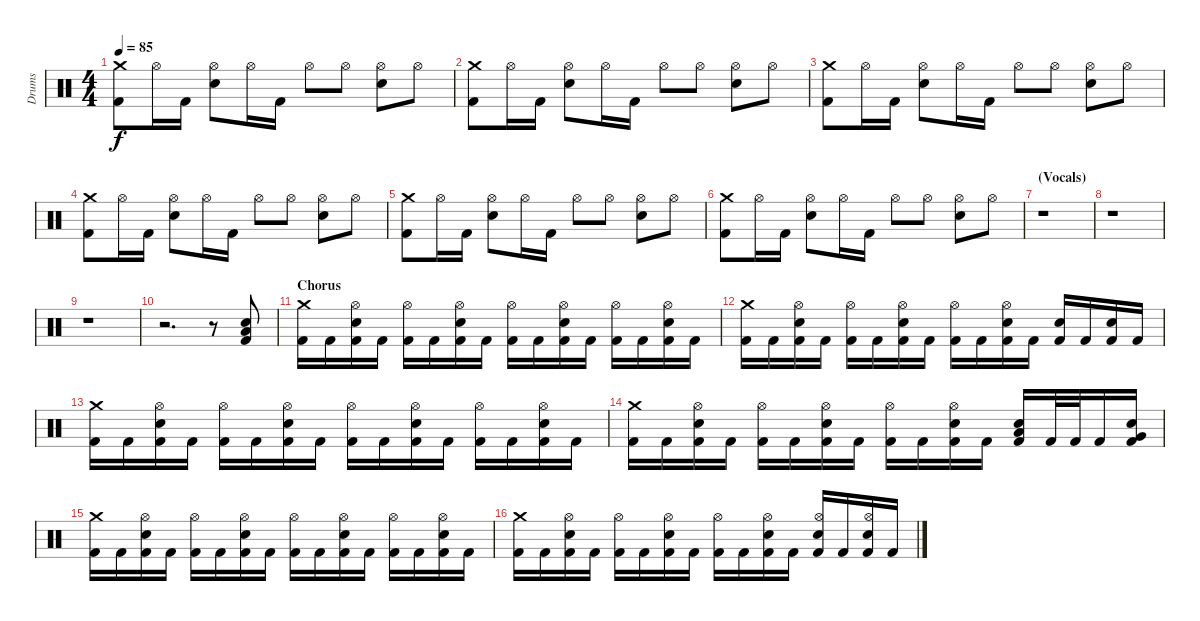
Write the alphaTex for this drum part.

\track ("Drums" "Drums") {instrument percussion}
\staff {score}
\articulation defaults
\ts (4 4)
\tempo 85
\clef neutral
\ks c
("Crash medium (hit)" "Kick (hit) 2").8{dy f} "Hi-Hat (open)".16 "Kick (hit) 2".16 ("Hi-Hat (open)" "Electric Snare (hit)").8 "Hi-Hat (open)".16 "Kick (hit) 2".16 "Hi-Hat (open)".8 "Hi-Hat (open)".8 ("Hi-Hat (open)" "Electric Snare (hit)").8 "Hi-Hat (open)".8 |
("Crash medium (hit)" "Kick (hit) 2").8 "Hi-Hat (open)".16 "Kick (hit) 2".16 ("Hi-Hat (open)" "Electric Snare (hit)").8 "Hi-Hat (open)".16 "Kick (hit) 2".16 "Hi-Hat (open)".8 "Hi-Hat (open)".8 ("Hi-Hat (open)" "Electric Snare (hit)").8 "Hi-Hat (open)".8 |
("Crash medium (hit)" "Kick (hit) 2").8 "Hi-Hat (open)".16 "Kick (hit) 2".16 ("Hi-Hat (open)" "Electric Snare (hit)").8 "Hi-Hat (open)".16 "Kick (hit) 2".16 "Hi-Hat (open)".8 "Hi-Hat (open)".8 ("Hi-Hat (open)" "Electric Snare (hit)").8 "Hi-Hat (open)".8 |
("Crash medium (hit)" "Kick (hit) 2").8 "Hi-Hat (open)".16 "Kick (hit) 2".16 ("Hi-Hat (open)" "Electric Snare (hit)").8 "Hi-Hat (open)".16 "Kick (hit) 2".16 "Hi-Hat (open)".8 "Hi-Hat (open)".8 ("Hi-Hat (open)" "Electric Snare (hit)").8 "Hi-Hat (open)".8 |
("Crash medium (hit)" "Kick (hit) 2").8 "Hi-Hat (open)".16 "Kick (hit) 2".16 ("Hi-Hat (open)" "Electric Snare (hit)").8 "Hi-Hat (open)".16 "Kick (hit) 2".16 "Hi-Hat (open)".8 "Hi-Hat (open)".8 ("Hi-Hat (open)" "Electric Snare (hit)").8 "Hi-Hat (open)".8 |
("Crash medium (hit)" "Kick (hit) 2").8 "Hi-Hat (open)".16 "Kick (hit) 2".16 ("Hi-Hat (open)" "Electric Snare (hit)").8 "Hi-Hat (open)".16 "Kick (hit) 2".16 "Hi-Hat (open)".8 "Hi-Hat (open)".8 ("Hi-Hat (open)" "Electric Snare (hit)").8 "Hi-Hat (open)".8 |
\section ("" "(Vocals)")
r.1 |
r.1 |
r.1 |
r.2{d} r.8 ("Electric Snare (hit)" "Low Tom (hit)" "Kick (hit) 2").8 |
\section ("" "Chorus")
("Crash medium (hit)" "Kick (hit) 2").16 "Kick (hit) 2".16 ("Hi-Hat (open)" "Electric Snare (hit)" "Kick (hit) 2").16 "Kick (hit) 2".16 ("Hi-Hat (open)" "Kick (hit) 2").16 "Kick (hit) 2".16 ("Hi-Hat (open)" "Electric Snare (hit)" "Kick (hit) 2").16 "Kick (hit) 2".16 ("Hi-Hat (open)" "Kick (hit) 2").16 "Kick (hit) 2".16 ("Hi-Hat (open)" "Electric Snare (hit)" "Kick (hit) 2").16 "Kick (hit) 2".16 ("Hi-Hat (open)" "Kick (hit) 2").16 "Kick (hit) 2".16 ("Hi-Hat (open)" "Electric Snare (hit)" "Kick (hit) 2").16 "Kick (hit) 2".16 |
("Crash medium (hit)" "Kick (hit) 2").16 "Kick (hit) 2".16 ("Hi-Hat (open)" "Electric Snare (hit)" "Kick (hit) 2").16 "Kick (hit) 2".16 ("Hi-Hat (open)" "Kick (hit) 2").16 "Kick (hit) 2".16 ("Hi-Hat (open)" "Electric Snare (hit)" "Kick (hit) 2").16 "Kick (hit) 2".16 ("Hi-Hat (open)" "Kick (hit) 2").16 "Kick (hit) 2".16 ("Hi-Hat (open)" "Electric Snare (hit)" "Kick (hit) 2").16 "Kick (hit) 2".16 ("Electric Snare (hit)" "Kick (hit) 2").16 "Kick (hit) 2".16 ("Electric Snare (hit)" "Kick (hit) 2").16 "Kick (hit) 2".16 |
("Crash medium (hit)" "Kick (hit) 2").16 "Kick (hit) 2".16 ("Hi-Hat (open)" "Electric Snare (hit)" "Kick (hit) 2").16 "Kick (hit) 2".16 ("Hi-Hat (open)" "Kick (hit) 2").16 "Kick (hit) 2".16 ("Hi-Hat (open)" "Electric Snare (hit)" "Kick (hit) 2").16 "Kick (hit) 2".16 ("Hi-Hat (open)" "Kick (hit) 2").16 "Kick (hit) 2".16 ("Hi-Hat (open)" "Electric Snare (hit)" "Kick (hit) 2").16 "Kick (hit) 2".16 ("Hi-Hat (open)" "Kick (hit) 2").16 "Kick (hit) 2".16 ("Hi-Hat (open)" "Electric Snare (hit)" "Kick (hit) 2").16 "Kick (hit) 2".16 |
("Crash medium (hit)" "Kick (hit) 2").16 "Kick (hit) 2".16 ("Hi-Hat (open)" "Electric Snare (hit)" "Kick (hit) 2").16 "Kick (hit) 2".16 ("Hi-Hat (open)" "Kick (hit) 2").16 "Kick (hit) 2".16 ("Hi-Hat (open)" "Electric Snare (hit)" "Kick (hit) 2").16 "Kick (hit) 2".16 ("Hi-Hat (open)" "Kick (hit) 2").16 "Kick (hit) 2".16 ("Hi-Hat (open)" "Electric Snare (hit)" "Kick (hit) 2").16 "Kick (hit) 2".16 ("Electric Snare (hit)" "Low Tom (hit)" "Kick (hit) 2").16 "Kick (hit) 2".32 "Kick (hit) 2".32 "Kick (hit) 2".16 ("Electric Snare (hit)" "Very Low Tom (hit)" "Kick (hit) 2").16 |
("Crash medium (hit)" "Kick (hit) 2").16 "Kick (hit) 2".16 ("Hi-Hat (open)" "Electric Snare (hit)" "Kick (hit) 2").16 "Kick (hit) 2".16 ("Hi-Hat (open)" "Kick (hit) 2").16 "Kick (hit) 2".16 ("Hi-Hat (open)" "Electric Snare (hit)" "Kick (hit) 2").16 "Kick (hit) 2".16 ("Hi-Hat (open)" "Kick (hit) 2").16 "Kick (hit) 2".16 ("Hi-Hat (open)" "Electric Snare (hit)" "Kick (hit) 2").16 "Kick (hit) 2".16 ("Hi-Hat (open)" "Kick (hit) 2").16 "Kick (hit) 2".16 ("Hi-Hat (open)" "Electric Snare (hit)" "Kick (hit) 2").16 "Kick (hit) 2".16 |
("Crash medium (hit)" "Kick (hit) 2").16 "Kick (hit) 2".16 ("Hi-Hat (open)" "Electric Snare (hit)" "Kick (hit) 2").16 "Kick (hit) 2".16 ("Hi-Hat (open)" "Kick (hit) 2").16 "Kick (hit) 2".16 ("Hi-Hat (open)" "Electric Snare (hit)" "Kick (hit) 2").16 "Kick (hit) 2".16 ("Hi-Hat (open)" "Kick (hit) 2").16 "Kick (hit) 2".16 ("Hi-Hat (open)" "Electric Snare (hit)" "Kick (hit) 2").16 "Kick (hit) 2".16 ("Hi-Hat (open)" "Electric Snare (hit)" "Kick (hit) 2").16 "Kick (hit) 2".16 ("Hi-Hat (open)" "Electric Snare (hit)" "Kick (hit) 2").16 "Kick (hit) 2".16
